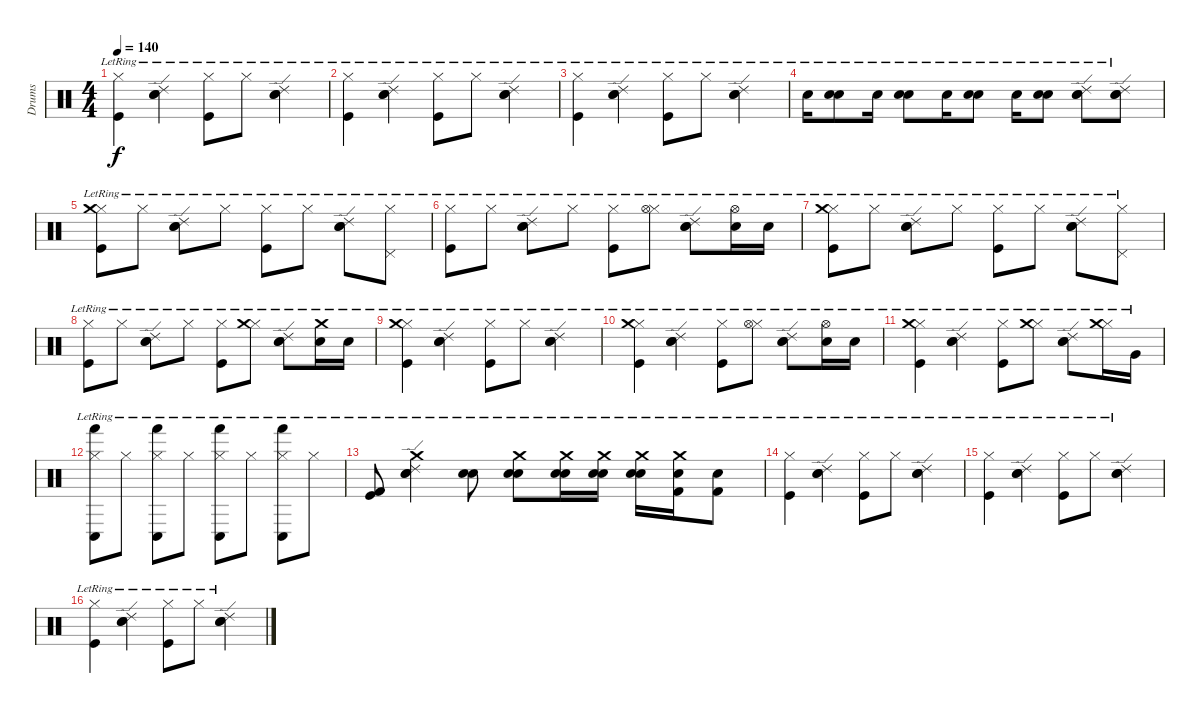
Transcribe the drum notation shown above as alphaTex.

\track ("Drums" "Drums") {instrument percussion}
\staff {score}
\articulation defaults
\ts (4 4)
\tempo 140
\clef neutral
\ks c
("Hi-Hat (closed)"{lr} "Kick (hit)"{lr}).4{dy f} ("Electric Snare (hit)"{lr} "Ride (edge) 2"{lr} "Snare (hit) 2"{lr}).4 ("Hi-Hat (closed)"{lr} "Kick (hit)"{lr}).8 "Hi-Hat (closed)"{lr}.8 ("Electric Snare (hit)"{lr} "Ride (edge) 2"{lr} "Snare (hit) 2"{lr}).4 |
("Hi-Hat (closed)"{lr} "Kick (hit)"{lr}).4 ("Electric Snare (hit)"{lr} "Ride (edge) 2"{lr} "Snare (hit) 2"{lr}).4 ("Hi-Hat (closed)"{lr} "Kick (hit)"{lr}).8 "Hi-Hat (closed)"{lr}.8 ("Electric Snare (hit)"{lr} "Ride (edge) 2"{lr} "Snare (hit) 2"{lr}).4 |
("Hi-Hat (closed)"{lr} "Kick (hit)"{lr}).4 ("Electric Snare (hit)"{lr} "Ride (edge) 2"{lr} "Snare (hit) 2"{lr}).4 ("Hi-Hat (closed)"{lr} "Kick (hit)"{lr}).8 "Hi-Hat (closed)"{lr}.8 ("Electric Snare (hit)"{lr} "Ride (edge) 2"{lr} "Snare (hit) 2"{lr}).4 |
"Snare (hit) 2"{lr}.16 ("Snare (hit) 2"{lr} "Electric Snare (hit)"{lr}).8 "Snare (hit) 2"{lr}.16 ("Snare (hit) 2"{lr} "Electric Snare (hit)"{lr}).8 "Snare (hit) 2"{lr}.16 ("Snare (hit) 2"{lr} "Electric Snare (hit)"{lr}).8 "Snare (hit) 2"{lr}.16 ("Snare (hit) 2"{lr} "Electric Snare (hit)"{lr}).8 ("Snare (hit) 2"{lr} "Electric Snare (hit)"{lr} "Ride (edge) 2"{lr}).8 ("Snare (hit) 2"{lr} "Electric Snare (hit)"{lr} "Ride (edge) 2"{lr}).8 |
("Hi-Hat (closed)"{lr} "Crash medium (hit)"{lr} "Kick (hit)"{lr}).8 "Hi-Hat (closed)"{lr}.8 ("Electric Snare (hit)"{lr} "Ride (edge) 2"{lr} "Snare (hit) 2"{lr}).8 "Hi-Hat (closed)"{lr}.8 ("Hi-Hat (closed)"{lr} "Kick (hit)"{lr}).8 "Hi-Hat (closed)"{lr}.8 ("Electric Snare (hit)"{lr} "Ride (edge) 2"{lr} "Snare (hit) 2"{lr}).8 ("Hi-Hat (closed)"{lr} "Pedal Hi-Hat (hit)"{lr}).8 |
("Hi-Hat (closed)"{lr} "Kick (hit)"{lr}).8 "Hi-Hat (closed)"{lr}.8 ("Electric Snare (hit)"{lr} "Ride (edge) 2"{lr} "Snare (hit) 2"{lr}).8 "Hi-Hat (closed)"{lr}.8 ("Hi-Hat (closed)"{lr} "Kick (hit)"{lr}).8 ("Hi-Hat (closed)"{lr} "Hi-Hat (open)"{lr}).8 ("Electric Snare (hit)"{lr} "Ride (edge) 2"{lr} "Snare (hit) 2"{lr}).8 ("Hi-Hat (open)"{lr} "Snare (hit) 2"{lr}).16 "Snare (hit) 2"{lr}.16 |
("Hi-Hat (closed)"{lr} "Crash medium (hit)"{lr} "Kick (hit)"{lr}).8 "Hi-Hat (closed)"{lr}.8 ("Electric Snare (hit)"{lr} "Ride (edge) 2"{lr} "Snare (hit) 2"{lr}).8 "Hi-Hat (closed)"{lr}.8 ("Hi-Hat (closed)"{lr} "Kick (hit)"{lr}).8 "Hi-Hat (closed)"{lr}.8 ("Electric Snare (hit)"{lr} "Ride (edge) 2"{lr} "Snare (hit) 2"{lr}).8 ("Hi-Hat (closed)"{lr} "Pedal Hi-Hat (hit)"{lr}).8 |
("Hi-Hat (closed)"{lr} "Kick (hit)"{lr}).8 "Hi-Hat (closed)"{lr}.8 ("Electric Snare (hit)"{lr} "Ride (edge) 2"{lr} "Snare (hit) 2"{lr}).8 "Hi-Hat (closed)"{lr}.8 ("Hi-Hat (closed)"{lr} "Kick (hit)"{lr}).8 ("Hi-Hat (closed)"{lr} "Crash medium (hit)"{lr}).8 ("Electric Snare (hit)"{lr} "Ride (edge) 2"{lr} "Snare (hit) 2"{lr}).8 ("Crash medium (hit)"{lr} "Snare (hit) 2"{lr}).16 "Snare (hit) 2"{lr}.16 |
("Hi-Hat (closed)"{lr} "Crash medium (hit)"{lr} "Kick (hit)"{lr}).4 ("Electric Snare (hit)"{lr} "Ride (edge) 2"{lr} "Snare (hit) 2"{lr}).4 ("Hi-Hat (closed)"{lr} "Kick (hit)"{lr}).8 "Hi-Hat (closed)"{lr}.8 ("Electric Snare (hit)"{lr} "Ride (edge) 2"{lr} "Snare (hit) 2"{lr}).4 |
("Hi-Hat (closed)"{lr} "Crash medium (hit)"{lr} "Kick (hit)"{lr}).4 ("Electric Snare (hit)"{lr} "Ride (edge) 2"{lr} "Snare (hit) 2"{lr}).4 ("Hi-Hat (closed)"{lr} "Kick (hit)"{lr}).8 ("Hi-Hat (closed)"{lr} "Hi-Hat (open)"{lr}).8 ("Electric Snare (hit)"{lr} "Ride (edge) 2"{lr} "Snare (hit) 2"{lr}).8 ("Hi-Hat (open)"{lr} "Snare (hit) 2"{lr}).16 "Snare (hit) 2"{lr}.16 |
("Hi-Hat (closed)"{lr} "Crash medium (hit)"{lr} "Kick (hit)"{lr}).4 ("Electric Snare (hit)"{lr} "Ride (edge) 2"{lr} "Snare (hit) 2"{lr}).4 ("Hi-Hat (closed)"{lr} "Kick (hit)"{lr}).8 ("Hi-Hat (closed)"{lr} "Crash medium (hit)"{lr}).8 ("Electric Snare (hit)"{lr} "Ride (edge) 2"{lr} "Snare (hit) 2"{lr}).8 ("Hi-Hat (closed)"{lr} "Crash medium (hit)"{lr}).16 "Very Low Tom (hit)"{lr}.16 |
("Hi-Hat (closed)"{lr} "Conga low (hit)"{lr} "Hand (hit)"{lr}).8 "Hi-Hat (closed)"{lr}.8 ("Hi-Hat (closed)"{lr} "Conga low (hit)"{lr} "Hand (hit)"{lr}).8 "Hi-Hat (closed)"{lr}.8 ("Hi-Hat (closed)"{lr} "Conga low (hit)"{lr} "Hand (hit)"{lr}).8 "Hi-Hat (closed)"{lr}.8 ("Hi-Hat (closed)"{lr} "Conga low (hit)"{lr} "Hand (hit)"{lr}).8 "Hi-Hat (closed)"{lr}.8 |
("Kick (hit) 2"{lr} "Kick (hit)"{lr}).8 ("Snare (hit) 2"{lr} "Electric Snare (hit)"{lr} "Ride (edge) 2"{lr} "Crash medium (hit)"{lr}).4 ("Snare (hit) 2"{lr} "Electric Snare (hit)"{lr}).8 ("Snare (hit) 2"{lr} "Electric Snare (hit)"{lr} "Crash medium (hit)"{lr}).8 ("Snare (hit) 2"{lr} "Electric Snare (hit)"{lr} "Crash medium (hit)"{lr}).16 ("Snare (hit) 2"{lr} "Electric Snare (hit)"{lr} "Crash medium (hit)"{lr}).16 ("Snare (hit) 2"{lr} "Electric Snare (hit)"{lr} "Crash medium (hit)"{lr}).16 ("Kick (hit) 2"{lr} "Electric Snare (hit)"{lr} "Crash medium (hit)"{lr}).16 ("Kick (hit) 2"{lr} "Electric Snare (hit)"{lr}).8 |
("Hi-Hat (closed)"{lr} "Kick (hit)"{lr}).4 ("Electric Snare (hit)"{lr} "Ride (edge) 2"{lr} "Snare (hit) 2"{lr}).4 ("Hi-Hat (closed)"{lr} "Kick (hit)"{lr}).8 "Hi-Hat (closed)"{lr}.8 ("Electric Snare (hit)"{lr} "Ride (edge) 2"{lr} "Snare (hit) 2"{lr}).4 |
("Hi-Hat (closed)"{lr} "Kick (hit)"{lr}).4 ("Electric Snare (hit)"{lr} "Ride (edge) 2"{lr} "Snare (hit) 2"{lr}).4 ("Hi-Hat (closed)"{lr} "Kick (hit)"{lr}).8 "Hi-Hat (closed)"{lr}.8 ("Electric Snare (hit)"{lr} "Ride (edge) 2"{lr} "Snare (hit) 2"{lr}).4 |
("Hi-Hat (closed)"{lr} "Kick (hit)"{lr}).4 ("Electric Snare (hit)"{lr} "Ride (edge) 2"{lr} "Snare (hit) 2"{lr}).4 ("Hi-Hat (closed)"{lr} "Kick (hit)"{lr}).8 "Hi-Hat (closed)"{lr}.8 ("Electric Snare (hit)"{lr} "Ride (edge) 2"{lr} "Snare (hit) 2"{lr}).4
